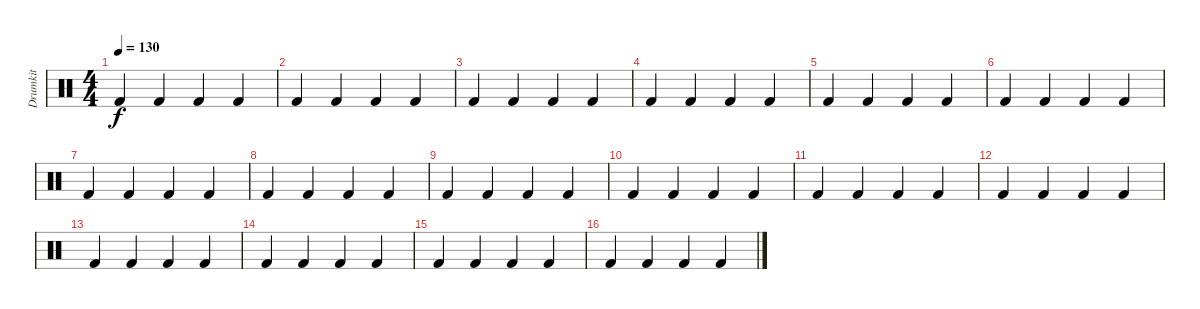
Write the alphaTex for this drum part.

\track ("Drumkit" "Drumkit") {instrument percussion}
\staff {score}
\articulation defaults
\ts (4 4)
\tempo 130
\clef neutral
\ks c "Kick (hit) 2".4{dy f} "Kick (hit) 2".4 "Kick (hit) 2".4 "Kick (hit) 2".4
|
"Kick (hit) 2".4 "Kick (hit) 2".4 "Kick (hit) 2".4 "Kick (hit) 2".4 |
"Kick (hit) 2".4 "Kick (hit) 2".4 "Kick (hit) 2".4 "Kick (hit) 2".4 |
"Kick (hit) 2".4 "Kick (hit) 2".4 "Kick (hit) 2".4 "Kick (hit) 2".4 |
"Kick (hit) 2".4 "Kick (hit) 2".4 "Kick (hit) 2".4 "Kick (hit) 2".4 |
"Kick (hit) 2".4 "Kick (hit) 2".4 "Kick (hit) 2".4 "Kick (hit) 2".4 |
"Kick (hit) 2".4 "Kick (hit) 2".4 "Kick (hit) 2".4 "Kick (hit) 2".4 |
"Kick (hit) 2".4 "Kick (hit) 2".4 "Kick (hit) 2".4 "Kick (hit) 2".4 |
"Kick (hit) 2".4 "Kick (hit) 2".4 "Kick (hit) 2".4 "Kick (hit) 2".4 |
"Kick (hit) 2".4 "Kick (hit) 2".4 "Kick (hit) 2".4 "Kick (hit) 2".4 |
"Kick (hit) 2".4 "Kick (hit) 2".4 "Kick (hit) 2".4 "Kick (hit) 2".4 |
"Kick (hit) 2".4 "Kick (hit) 2".4 "Kick (hit) 2".4 "Kick (hit) 2".4 |
"Kick (hit) 2".4 "Kick (hit) 2".4 "Kick (hit) 2".4 "Kick (hit) 2".4 |
"Kick (hit) 2".4 "Kick (hit) 2".4 "Kick (hit) 2".4 "Kick (hit) 2".4 |
"Kick (hit) 2".4 "Kick (hit) 2".4 "Kick (hit) 2".4 "Kick (hit) 2".4 |
"Kick (hit) 2".4 "Kick (hit) 2".4 "Kick (hit) 2".4 "Kick (hit) 2".4
